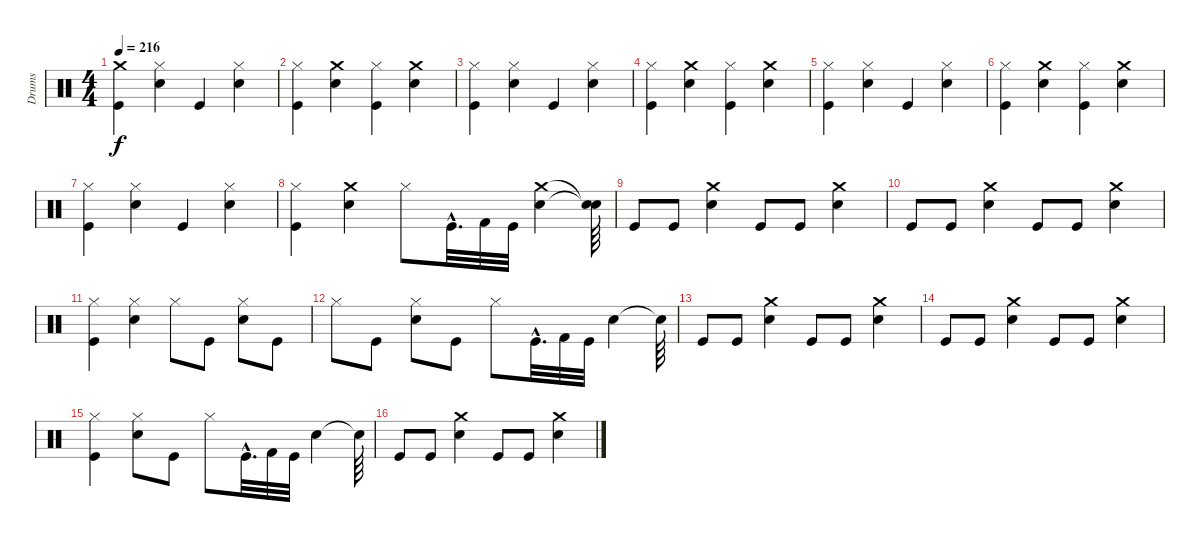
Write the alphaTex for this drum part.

\track ("Drums" "Drums") {instrument percussion}
\staff {score}
\articulation defaults
\ts (4 4)
\tempo 216
\clef neutral
\ks c
("Crash medium (hit)" "Kick (hit)").4{dy f} ("Hi-Hat (closed)" "Snare (hit) 2").4 "Kick (hit)".4 ("Snare (hit) 2" "Hi-Hat (closed)").4 |
("Hi-Hat (closed)" "Kick (hit)").4 ("Crash medium (hit)" "Snare (hit) 2").4 ("Hi-Hat (closed)" "Kick (hit)").4 ("Crash medium (hit)" "Snare (hit) 2").4 |
("Hi-Hat (closed)" "Kick (hit)").4 ("Hi-Hat (closed)" "Snare (hit) 2").4 "Kick (hit)".4 ("Snare (hit) 2" "Hi-Hat (closed)").4 |
("Hi-Hat (closed)" "Kick (hit)").4 ("Crash medium (hit)" "Snare (hit) 2").4 ("Hi-Hat (closed)" "Kick (hit)").4 ("Crash medium (hit)" "Snare (hit) 2").4 |
("Hi-Hat (closed)" "Kick (hit)").4 ("Hi-Hat (closed)" "Snare (hit) 2").4 "Kick (hit)".4 ("Snare (hit) 2" "Hi-Hat (closed)").4 |
("Hi-Hat (closed)" "Kick (hit)").4 ("Crash medium (hit)" "Snare (hit) 2").4 ("Hi-Hat (closed)" "Kick (hit)").4 ("Crash medium (hit)" "Snare (hit) 2").4 |
("Hi-Hat (closed)" "Kick (hit)").4 ("Hi-Hat (closed)" "Snare (hit) 2").4 "Kick (hit)".4 ("Snare (hit) 2" "Hi-Hat (closed)").4 |
("Hi-Hat (closed)" "Kick (hit)").4 ("Crash medium (hit)" "Snare (hit) 2").4 "Hi-Hat (closed)".8 "Kick (hit)"{hac}.32{d} "Kick (hit) 2".32 "Kick (hit)".32 ("Crash medium (hit)" "Snare (hit) 2").4 ("Snare (hit)"{t} "Snare (hit)"{t}).64 |
"Kick (hit)".8 "Kick (hit)".8 ("Snare (hit) 2" "Crash medium (hit)").4 "Kick (hit)".8 "Kick (hit)".8 ("Snare (hit) 2" "Crash medium (hit)").4 |
"Kick (hit)".8 "Kick (hit)".8 ("Snare (hit) 2" "Crash medium (hit)").4 "Kick (hit)".8 "Kick (hit)".8 ("Snare (hit) 2" "Crash medium (hit)").4 |
("Kick (hit)" "Hi-Hat (closed)").4 ("Hi-Hat (closed)" "Snare (hit) 2").4 "Hi-Hat (closed)".8 "Kick (hit)".8 ("Snare (hit) 2" "Hi-Hat (closed)").8 "Kick (hit)".8 |
"Hi-Hat (closed)".8 "Kick (hit)".8 ("Snare (hit) 2" "Hi-Hat (closed)").8 "Kick (hit)".8 "Hi-Hat (closed)".8 "Kick (hit)"{hac}.32{d} "Kick (hit) 2".32 "Kick (hit)".32 "Snare (hit) 2".4 "Snare (hit)"{t}.64 |
"Kick (hit)".8 "Kick (hit)".8 ("Snare (hit) 2" "Crash medium (hit)").4 "Kick (hit)".8 "Kick (hit)".8 ("Snare (hit) 2" "Crash medium (hit)").4 |
"Kick (hit)".8 "Kick (hit)".8 ("Snare (hit) 2" "Crash medium (hit)").4 "Kick (hit)".8 "Kick (hit)".8 ("Snare (hit) 2" "Crash medium (hit)").4 |
("Kick (hit)" "Hi-Hat (closed)").4 ("Snare (hit) 2" "Hi-Hat (closed)").8 "Kick (hit)".8 "Hi-Hat (closed)".8 "Kick (hit)"{hac}.32{d} "Kick (hit) 2".32 "Kick (hit)".32 "Snare (hit) 2".4 "Snare (hit)"{t}.64 |
"Kick (hit)".8 "Kick (hit)".8 ("Snare (hit) 2" "Crash medium (hit)").4 "Kick (hit)".8 "Kick (hit)".8 ("Snare (hit) 2" "Crash medium (hit)").4
